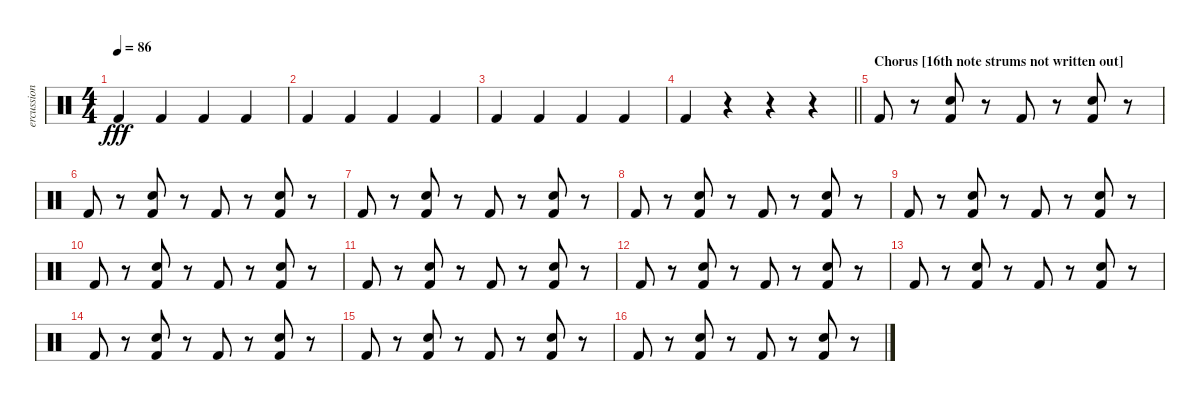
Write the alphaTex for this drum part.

\track ("ercussion" "ercussion") {instrument percussion}
\staff {score}
\articulation defaults
\ts (4 4)
\tempo 86
\clef neutral
\ks c "Kick (hit) 2".4{dy fff} "Kick (hit) 2".4 "Kick (hit) 2".4 "Kick (hit) 2".4
|
"Kick (hit) 2".4 "Kick (hit) 2".4 "Kick (hit) 2".4 "Kick (hit) 2".4 |
"Kick (hit) 2".4 "Kick (hit) 2".4 "Kick (hit) 2".4 "Kick (hit) 2".4 |
\barLineRight lightlight "Kick (hit) 2".4
r.4 r.4 r.4 |
\section ("" "Chorus [16th note strums not written out]")
"Kick (hit) 2".8 r.8 ("Snare (hit) 2" "Kick (hit) 2").8 r.8 "Kick (hit) 2".8 r.8 ("Snare (hit) 2" "Kick (hit) 2").8 r.8 |
"Kick (hit) 2".8 r.8 ("Snare (hit) 2" "Kick (hit) 2").8 r.8 "Kick (hit) 2".8 r.8 ("Snare (hit) 2" "Kick (hit) 2").8 r.8 |
"Kick (hit) 2".8 r.8 ("Snare (hit) 2" "Kick (hit) 2").8 r.8 "Kick (hit) 2".8 r.8 ("Snare (hit) 2" "Kick (hit) 2").8 r.8 |
"Kick (hit) 2".8 r.8 ("Snare (hit) 2" "Kick (hit) 2").8 r.8 "Kick (hit) 2".8 r.8 ("Snare (hit) 2" "Kick (hit) 2").8 r.8 |
"Kick (hit) 2".8 r.8 ("Snare (hit) 2" "Kick (hit) 2").8 r.8 "Kick (hit) 2".8 r.8 ("Snare (hit) 2" "Kick (hit) 2").8 r.8 |
"Kick (hit) 2".8 r.8 ("Snare (hit) 2" "Kick (hit) 2").8 r.8 "Kick (hit) 2".8 r.8 ("Snare (hit) 2" "Kick (hit) 2").8 r.8 |
"Kick (hit) 2".8 r.8 ("Snare (hit) 2" "Kick (hit) 2").8 r.8 "Kick (hit) 2".8 r.8 ("Snare (hit) 2" "Kick (hit) 2").8 r.8 |
"Kick (hit) 2".8 r.8 ("Snare (hit) 2" "Kick (hit) 2").8 r.8 "Kick (hit) 2".8 r.8 ("Snare (hit) 2" "Kick (hit) 2").8 r.8 |
"Kick (hit) 2".8 r.8 ("Snare (hit) 2" "Kick (hit) 2").8 r.8 "Kick (hit) 2".8 r.8 ("Snare (hit) 2" "Kick (hit) 2").8 r.8 |
"Kick (hit) 2".8 r.8 ("Snare (hit) 2" "Kick (hit) 2").8 r.8 "Kick (hit) 2".8 r.8 ("Snare (hit) 2" "Kick (hit) 2").8 r.8 |
"Kick (hit) 2".8 r.8 ("Snare (hit) 2" "Kick (hit) 2").8 r.8 "Kick (hit) 2".8 r.8 ("Snare (hit) 2" "Kick (hit) 2").8 r.8 |
"Kick (hit) 2".8 r.8 ("Snare (hit) 2" "Kick (hit) 2").8 r.8 "Kick (hit) 2".8 r.8 ("Snare (hit) 2" "Kick (hit) 2").8 r.8
